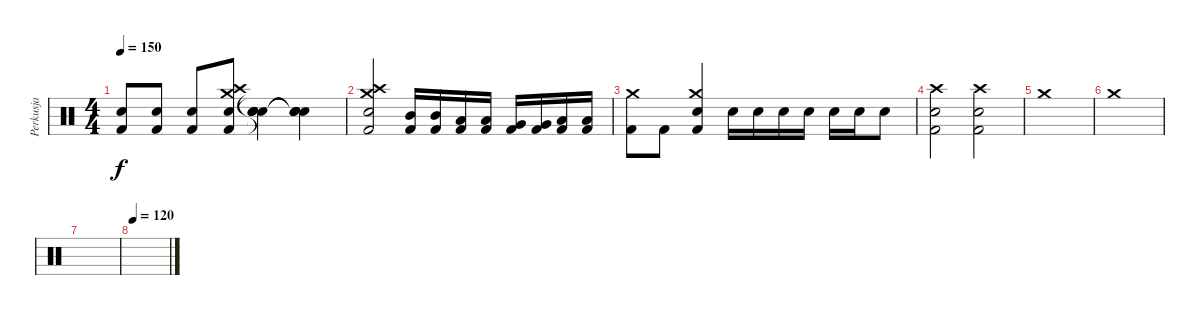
\track ("Perkusja" "Perkusja") {instrument percussion}
\staff {score}
\articulation defaults
\ts (4 4)
\tempo 150
\clef neutral
\ks c
("Snare (hit) 2" "Kick (hit) 2").8{dy f} ("Snare (hit) 2" "Kick (hit) 2").8 ("Snare (hit) 2" "Kick (hit) 2").8 ("Crash high (hit)" "Kick (hit) 2" "Crash medium (hit)" "Electric Snare (hit)").8 ("Snare (hit)"{t} "Snare (hit)"{t} "Snare (hit)"{t} "Snare (hit)"{t}).4 ("Snare (hit)"{t} "Snare (hit)"{t} "Snare (hit)"{t} "Snare (hit)"{t}).4 |
("Crash medium (hit)" "Crash high (hit)" "Electric Snare (hit)" "Kick (hit) 2").2 ("Mid Tom (hit)" "Kick (hit) 2").16 ("Mid Tom (hit)" "Kick (hit) 2").16 ("Low Tom (hit)" "Kick (hit) 2").16 ("Low Tom (hit)" "Kick (hit) 2").16 ("Very Low Tom (hit)" "Kick (hit) 2").16 ("Very Low Tom (hit)" "Kick (hit) 2").16 ("Low Floor Tom (hit)" "Kick (hit) 2").16 ("Low Floor Tom (hit)" "Kick (hit) 2").16 |
("Crash medium (hit)" "Kick (hit) 2").8 "Kick (hit) 2".8 ("Crash medium (hit)" "Electric Snare (hit)" "Kick (hit) 2").4 "Electric Snare (hit)".16 "Electric Snare (hit)".16 "Electric Snare (hit)".16 "Electric Snare (hit)".16 "Snare (hit) 2".16 "Snare (hit) 2".16 "Snare (hit) 2".8 |
("Kick (hit) 2" "Crash high (hit)" "Snare (hit) 2").2 ("Kick (hit) 2" "Crash high (hit)" "Snare (hit) 2").2 |
"Crash medium (hit)".1 |
"Crash medium (hit)".1 |
|
\tempo 120
